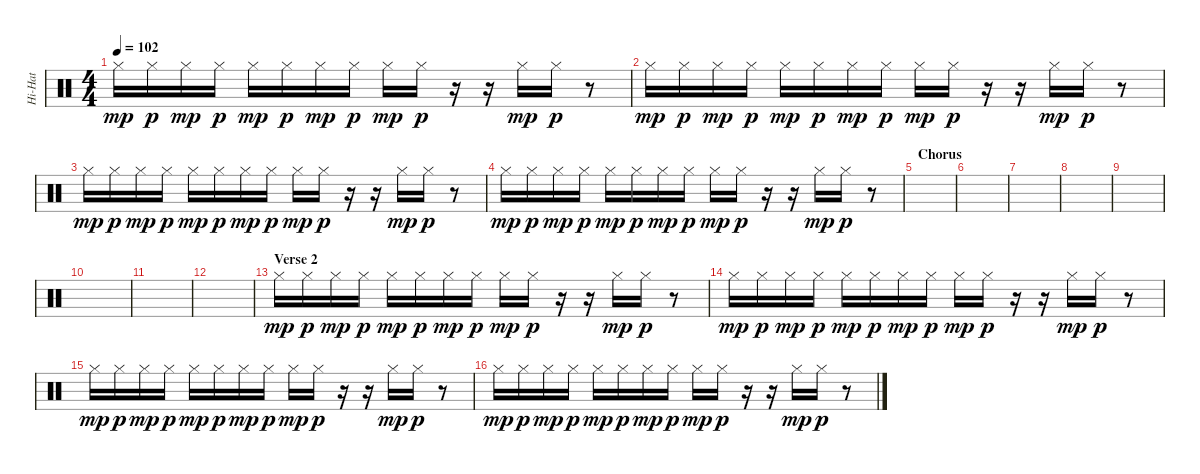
\track ("Hi-Hat" "Hi-Hat") {instrument percussion}
\staff {score}
\articulation defaults
\ts (4 4)
\tempo 102
\clef neutral
\ks c "Hi-Hat (closed)".16{dy mp} "Hi-Hat (closed)".16{dy p} "Hi-Hat (closed)".16{dy mp} "Hi-Hat (closed)".16{dy p} "Hi-Hat (closed)".16{dy mp} "Hi-Hat (closed)".16{dy p} "Hi-Hat (closed)".16{dy mp} "Hi-Hat (closed)".16{dy p} "Hi-Hat (closed)".16{dy mp} "Hi-Hat (closed)".16{dy p}
r.16 r.16 "Hi-Hat (closed)".16{dy mp} "Hi-Hat (closed)".16{dy p} r.8 |
"Hi-Hat (closed)".16{dy mp} "Hi-Hat (closed)".16{dy p} "Hi-Hat (closed)".16{dy mp} "Hi-Hat (closed)".16{dy p} "Hi-Hat (closed)".16{dy mp} "Hi-Hat (closed)".16{dy p} "Hi-Hat (closed)".16{dy mp} "Hi-Hat (closed)".16{dy p} "Hi-Hat (closed)".16{dy mp} "Hi-Hat (closed)".16{dy p} r.16 r.16 "Hi-Hat (closed)".16{dy mp} "Hi-Hat (closed)".16{dy p} r.8 |
"Hi-Hat (closed)".16{dy mp} "Hi-Hat (closed)".16{dy p} "Hi-Hat (closed)".16{dy mp} "Hi-Hat (closed)".16{dy p} "Hi-Hat (closed)".16{dy mp} "Hi-Hat (closed)".16{dy p} "Hi-Hat (closed)".16{dy mp} "Hi-Hat (closed)".16{dy p} "Hi-Hat (closed)".16{dy mp} "Hi-Hat (closed)".16{dy p} r.16 r.16 "Hi-Hat (closed)".16{dy mp} "Hi-Hat (closed)".16{dy p} r.8 |
"Hi-Hat (closed)".16{dy mp} "Hi-Hat (closed)".16{dy p} "Hi-Hat (closed)".16{dy mp} "Hi-Hat (closed)".16{dy p} "Hi-Hat (closed)".16{dy mp} "Hi-Hat (closed)".16{dy p} "Hi-Hat (closed)".16{dy mp} "Hi-Hat (closed)".16{dy p} "Hi-Hat (closed)".16{dy mp} "Hi-Hat (closed)".16{dy p} r.16 r.16 "Hi-Hat (closed)".16{dy mp} "Hi-Hat (closed)".16{dy p} r.8 |
\section ("" "Chorus")
|
|
|
|
|
|
|
|
\section ("" "Verse 2")
"Hi-Hat (closed)".16{dy mp} "Hi-Hat (closed)".16{dy p} "Hi-Hat (closed)".16{dy mp} "Hi-Hat (closed)".16{dy p} "Hi-Hat (closed)".16{dy mp} "Hi-Hat (closed)".16{dy p} "Hi-Hat (closed)".16{dy mp} "Hi-Hat (closed)".16{dy p} "Hi-Hat (closed)".16{dy mp} "Hi-Hat (closed)".16{dy p} r.16 r.16 "Hi-Hat (closed)".16{dy mp} "Hi-Hat (closed)".16{dy p} r.8 |
"Hi-Hat (closed)".16{dy mp} "Hi-Hat (closed)".16{dy p} "Hi-Hat (closed)".16{dy mp} "Hi-Hat (closed)".16{dy p} "Hi-Hat (closed)".16{dy mp} "Hi-Hat (closed)".16{dy p} "Hi-Hat (closed)".16{dy mp} "Hi-Hat (closed)".16{dy p} "Hi-Hat (closed)".16{dy mp} "Hi-Hat (closed)".16{dy p} r.16 r.16 "Hi-Hat (closed)".16{dy mp} "Hi-Hat (closed)".16{dy p} r.8 |
"Hi-Hat (closed)".16{dy mp} "Hi-Hat (closed)".16{dy p} "Hi-Hat (closed)".16{dy mp} "Hi-Hat (closed)".16{dy p} "Hi-Hat (closed)".16{dy mp} "Hi-Hat (closed)".16{dy p} "Hi-Hat (closed)".16{dy mp} "Hi-Hat (closed)".16{dy p} "Hi-Hat (closed)".16{dy mp} "Hi-Hat (closed)".16{dy p} r.16 r.16 "Hi-Hat (closed)".16{dy mp} "Hi-Hat (closed)".16{dy p} r.8 |
"Hi-Hat (closed)".16{dy mp} "Hi-Hat (closed)".16{dy p} "Hi-Hat (closed)".16{dy mp} "Hi-Hat (closed)".16{dy p} "Hi-Hat (closed)".16{dy mp} "Hi-Hat (closed)".16{dy p} "Hi-Hat (closed)".16{dy mp} "Hi-Hat (closed)".16{dy p} "Hi-Hat (closed)".16{dy mp} "Hi-Hat (closed)".16{dy p} r.16 r.16 "Hi-Hat (closed)".16{dy mp} "Hi-Hat (closed)".16{dy p} r.8
